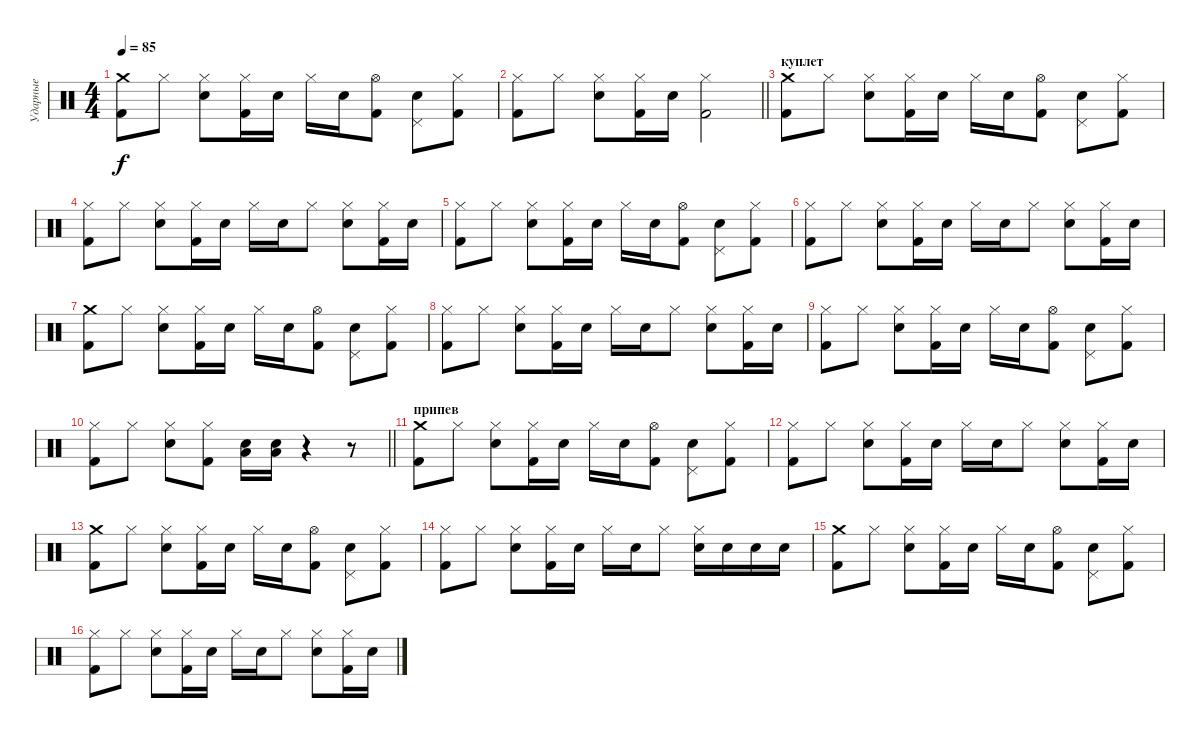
\track ("Ударные" "Ударные") {instrument percussion}
\staff {score}
\articulation defaults
\ts (4 4)
\tempo 85
\clef neutral
\ks c
("Crash medium (hit)" "Kick (hit) 2").8{dy f} "Hi-Hat (closed)".8 ("Hi-Hat (closed)" "Snare (hit) 2").8 ("Hi-Hat (closed)" "Kick (hit) 2").16 "Snare (hit) 2".16 "Hi-Hat (closed)".16 "Snare (hit) 2".16 ("Hi-Hat (open)" "Kick (hit) 2").8 ("Snare (hit) 2" "Pedal Hi-Hat (hit)").8 ("Hi-Hat (closed)" "Kick (hit) 2").8 |
\barLineRight lightlight
("Hi-Hat (closed)" "Kick (hit) 2").8 "Hi-Hat (closed)".8 ("Hi-Hat (closed)" "Snare (hit) 2").8 ("Hi-Hat (closed)" "Kick (hit) 2").16 "Snare (hit) 2".16 ("Hi-Hat (closed)" "Kick (hit) 2").2 |
\section ("" "куплет")
("Crash medium (hit)" "Kick (hit) 2").8 "Hi-Hat (closed)".8 ("Hi-Hat (closed)" "Snare (hit) 2").8 ("Hi-Hat (closed)" "Kick (hit) 2").16 "Snare (hit) 2".16 "Hi-Hat (closed)".16 "Snare (hit) 2".16 ("Hi-Hat (open)" "Kick (hit) 2").8 ("Snare (hit) 2" "Pedal Hi-Hat (hit)").8 ("Hi-Hat (closed)" "Kick (hit) 2").8 |
("Hi-Hat (closed)" "Kick (hit) 2").8 "Hi-Hat (closed)".8 ("Hi-Hat (closed)" "Snare (hit) 2").8 ("Hi-Hat (closed)" "Kick (hit) 2").16 "Snare (hit) 2".16 "Hi-Hat (closed)".16 "Snare (hit) 2".16 "Hi-Hat (closed)".8 ("Hi-Hat (closed)" "Snare (hit) 2").8 ("Hi-Hat (closed)" "Kick (hit) 2").16 "Snare (hit) 2".16 |
("Hi-Hat (closed)" "Kick (hit) 2").8 "Hi-Hat (closed)".8 ("Hi-Hat (closed)" "Snare (hit) 2").8 ("Hi-Hat (closed)" "Kick (hit) 2").16 "Snare (hit) 2".16 "Hi-Hat (closed)".16 "Snare (hit) 2".16 ("Hi-Hat (open)" "Kick (hit) 2").8 ("Snare (hit) 2" "Pedal Hi-Hat (hit)").8 ("Hi-Hat (closed)" "Kick (hit) 2").8 |
("Hi-Hat (closed)" "Kick (hit) 2").8 "Hi-Hat (closed)".8 ("Hi-Hat (closed)" "Snare (hit) 2").8 ("Hi-Hat (closed)" "Kick (hit) 2").16 "Snare (hit) 2".16 "Hi-Hat (closed)".16 "Snare (hit) 2".16 "Hi-Hat (closed)".8 ("Hi-Hat (closed)" "Snare (hit) 2").8 ("Hi-Hat (closed)" "Kick (hit) 2").16 "Snare (hit) 2".16 |
("Crash medium (hit)" "Kick (hit) 2").8 "Hi-Hat (closed)".8 ("Hi-Hat (closed)" "Snare (hit) 2").8 ("Hi-Hat (closed)" "Kick (hit) 2").16 "Snare (hit) 2".16 "Hi-Hat (closed)".16 "Snare (hit) 2".16 ("Hi-Hat (open)" "Kick (hit) 2").8 ("Snare (hit) 2" "Pedal Hi-Hat (hit)").8 ("Hi-Hat (closed)" "Kick (hit) 2").8 |
("Hi-Hat (closed)" "Kick (hit) 2").8 "Hi-Hat (closed)".8 ("Hi-Hat (closed)" "Snare (hit) 2").8 ("Hi-Hat (closed)" "Kick (hit) 2").16 "Snare (hit) 2".16 "Hi-Hat (closed)".16 "Snare (hit) 2".16 "Hi-Hat (closed)".8 ("Hi-Hat (closed)" "Snare (hit) 2").8 ("Hi-Hat (closed)" "Kick (hit) 2").16 "Snare (hit) 2".16 |
("Hi-Hat (closed)" "Kick (hit) 2").8 "Hi-Hat (closed)".8 ("Hi-Hat (closed)" "Snare (hit) 2").8 ("Hi-Hat (closed)" "Kick (hit) 2").16 "Snare (hit) 2".16 "Hi-Hat (closed)".16 "Snare (hit) 2".16 ("Hi-Hat (open)" "Kick (hit) 2").8 ("Snare (hit) 2" "Pedal Hi-Hat (hit)").8 ("Hi-Hat (closed)" "Kick (hit) 2").8 |
\barLineRight lightlight
("Hi-Hat (closed)" "Kick (hit) 2").8 "Hi-Hat (closed)".8 ("Hi-Hat (closed)" "Snare (hit) 2").8 ("Hi-Hat (closed)" "Kick (hit) 2").8 ("Snare (hit) 2" "Low Floor Tom (hit)").16 ("Snare (hit) 2" "Low Floor Tom (hit)").16 r.4 r.8 |
\section ("" "припев")
("Crash medium (hit)" "Kick (hit) 2").8 "Hi-Hat (closed)".8 ("Hi-Hat (closed)" "Snare (hit) 2").8 ("Hi-Hat (closed)" "Kick (hit) 2").16 "Snare (hit) 2".16 "Hi-Hat (closed)".16 "Snare (hit) 2".16 ("Hi-Hat (open)" "Kick (hit) 2").8 ("Snare (hit) 2" "Pedal Hi-Hat (hit)").8 ("Hi-Hat (closed)" "Kick (hit) 2").8 |
("Hi-Hat (closed)" "Kick (hit) 2").8 "Hi-Hat (closed)".8 ("Hi-Hat (closed)" "Snare (hit) 2").8 ("Hi-Hat (closed)" "Kick (hit) 2").16 "Snare (hit) 2".16 "Hi-Hat (closed)".16 "Snare (hit) 2".16 "Hi-Hat (closed)".8 ("Hi-Hat (closed)" "Snare (hit) 2").8 ("Hi-Hat (closed)" "Kick (hit) 2").16 "Snare (hit) 2".16 |
("Crash medium (hit)" "Kick (hit) 2").8 "Hi-Hat (closed)".8 ("Hi-Hat (closed)" "Snare (hit) 2").8 ("Hi-Hat (closed)" "Kick (hit) 2").16 "Snare (hit) 2".16 "Hi-Hat (closed)".16 "Snare (hit) 2".16 ("Hi-Hat (open)" "Kick (hit) 2").8 ("Snare (hit) 2" "Pedal Hi-Hat (hit)").8 ("Hi-Hat (closed)" "Kick (hit) 2").8 |
("Hi-Hat (closed)" "Kick (hit) 2").8 "Hi-Hat (closed)".8 ("Hi-Hat (closed)" "Snare (hit) 2").8 ("Hi-Hat (closed)" "Kick (hit) 2").16 "Snare (hit) 2".16 "Hi-Hat (closed)".16 "Snare (hit) 2".16 "Hi-Hat (closed)".8 ("Hi-Hat (closed)" "Snare (hit) 2").16 "Snare (hit) 2".16 "Snare (hit) 2".16 "Snare (hit) 2".16 |
("Crash medium (hit)" "Kick (hit) 2").8 "Hi-Hat (closed)".8 ("Hi-Hat (closed)" "Snare (hit) 2").8 ("Hi-Hat (closed)" "Kick (hit) 2").16 "Snare (hit) 2".16 "Hi-Hat (closed)".16 "Snare (hit) 2".16 ("Hi-Hat (open)" "Kick (hit) 2").8 ("Snare (hit) 2" "Pedal Hi-Hat (hit)").8 ("Hi-Hat (closed)" "Kick (hit) 2").8 |
("Hi-Hat (closed)" "Kick (hit) 2").8 "Hi-Hat (closed)".8 ("Hi-Hat (closed)" "Snare (hit) 2").8 ("Hi-Hat (closed)" "Kick (hit) 2").16 "Snare (hit) 2".16 "Hi-Hat (closed)".16 "Snare (hit) 2".16 "Hi-Hat (closed)".8 ("Hi-Hat (closed)" "Snare (hit) 2").8 ("Hi-Hat (closed)" "Kick (hit) 2").16 "Snare (hit) 2".16
